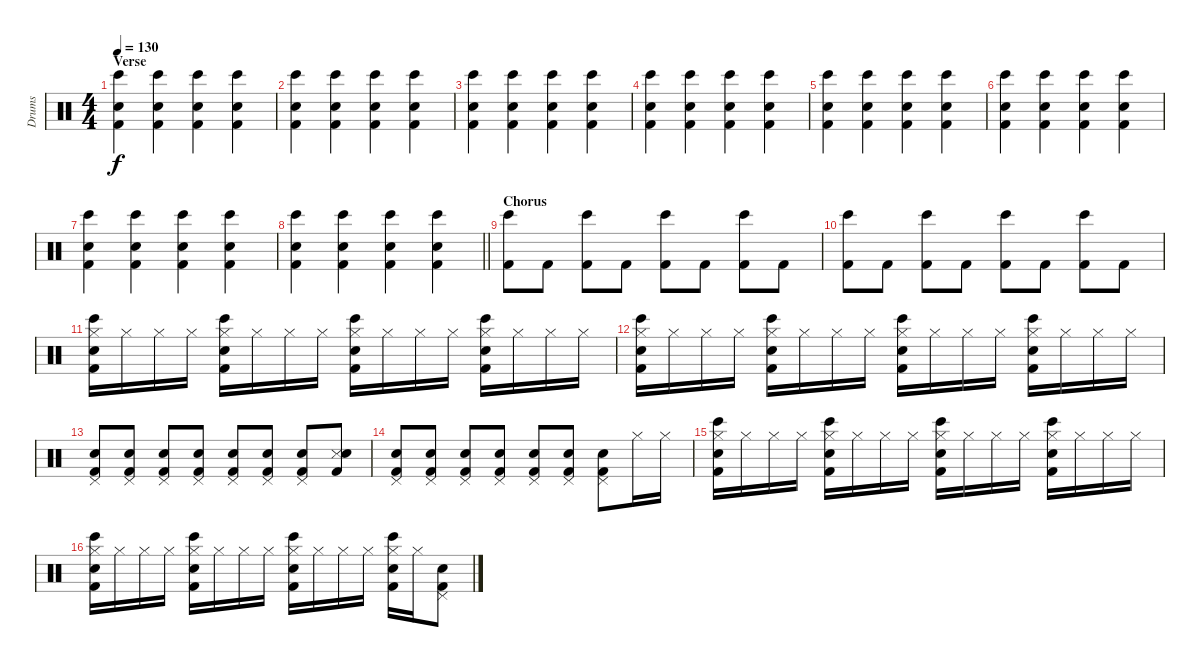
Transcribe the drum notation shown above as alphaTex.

\track ("Drums" "Drums") {instrument percussion}
\staff {score}
\articulation defaults
\ts (4 4)
\section ("" "Verse")
\tempo 130
\clef neutral
\ks c
("Electric Snare (hit)" "Kick (hit) 2" "Bongo High (hit)").4{dy f} ("Electric Snare (hit)" "Kick (hit) 2" "Bongo High (hit)").4 ("Electric Snare (hit)" "Kick (hit) 2" "Bongo High (hit)").4 ("Electric Snare (hit)" "Kick (hit) 2" "Bongo High (hit)").4 |
("Electric Snare (hit)" "Kick (hit) 2" "Bongo High (hit)").4 ("Electric Snare (hit)" "Kick (hit) 2" "Bongo High (hit)").4 ("Electric Snare (hit)" "Kick (hit) 2" "Bongo High (hit)").4 ("Electric Snare (hit)" "Kick (hit) 2" "Bongo High (hit)").4 |
("Electric Snare (hit)" "Kick (hit) 2" "Bongo High (hit)").4 ("Electric Snare (hit)" "Kick (hit) 2" "Bongo High (hit)").4 ("Electric Snare (hit)" "Kick (hit) 2" "Bongo High (hit)").4 ("Electric Snare (hit)" "Kick (hit) 2" "Bongo High (hit)").4 |
("Electric Snare (hit)" "Kick (hit) 2" "Bongo High (hit)").4 ("Electric Snare (hit)" "Kick (hit) 2" "Bongo High (hit)").4 ("Electric Snare (hit)" "Kick (hit) 2" "Bongo High (hit)").4 ("Electric Snare (hit)" "Kick (hit) 2" "Bongo High (hit)").4 |
("Electric Snare (hit)" "Kick (hit) 2" "Bongo High (hit)").4 ("Electric Snare (hit)" "Kick (hit) 2" "Bongo High (hit)").4 ("Electric Snare (hit)" "Kick (hit) 2" "Bongo High (hit)").4 ("Electric Snare (hit)" "Kick (hit) 2" "Bongo High (hit)").4 |
("Electric Snare (hit)" "Kick (hit) 2" "Bongo High (hit)").4 ("Electric Snare (hit)" "Kick (hit) 2" "Bongo High (hit)").4 ("Electric Snare (hit)" "Kick (hit) 2" "Bongo High (hit)").4 ("Electric Snare (hit)" "Kick (hit) 2" "Bongo High (hit)").4 |
("Electric Snare (hit)" "Kick (hit) 2" "Bongo High (hit)").4 ("Electric Snare (hit)" "Kick (hit) 2" "Bongo High (hit)").4 ("Electric Snare (hit)" "Kick (hit) 2" "Bongo High (hit)").4 ("Electric Snare (hit)" "Kick (hit) 2" "Bongo High (hit)").4 |
\barLineRight lightlight
("Electric Snare (hit)" "Kick (hit) 2" "Bongo High (hit)").4 ("Electric Snare (hit)" "Kick (hit) 2" "Bongo High (hit)").4 ("Electric Snare (hit)" "Kick (hit) 2" "Bongo High (hit)").4 ("Electric Snare (hit)" "Kick (hit) 2" "Bongo High (hit)").4 |
\section ("" "Chorus")
("Bongo High (hit)" "Kick (hit) 2").8{volume 16} "Kick (hit) 2".8 ("Bongo High (hit)" "Kick (hit) 2").8 "Kick (hit) 2".8 ("Bongo High (hit)" "Kick (hit) 2").8 "Kick (hit) 2".8 ("Bongo High (hit)" "Kick (hit) 2").8 "Kick (hit) 2".8 |
("Bongo High (hit)" "Kick (hit) 2").8 "Kick (hit) 2".8 ("Bongo High (hit)" "Kick (hit) 2").8 "Kick (hit) 2".8 ("Bongo High (hit)" "Kick (hit) 2").8 "Kick (hit) 2".8 ("Bongo High (hit)" "Kick (hit) 2").8 "Kick (hit) 2".8 |
("Hi-Hat (closed)" "Electric Snare (hit)" "Kick (hit) 2" "Bongo High (hit)").16{volume 10} "Hi-Hat (closed)".16 "Hi-Hat (closed)".16 "Hi-Hat (closed)".16 ("Hi-Hat (closed)" "Electric Snare (hit)" "Kick (hit) 2" "Bongo High (hit)").16 "Hi-Hat (closed)".16 "Hi-Hat (closed)".16 "Hi-Hat (closed)".16 ("Hi-Hat (closed)" "Electric Snare (hit)" "Kick (hit) 2" "Bongo High (hit)").16 "Hi-Hat (closed)".16 "Hi-Hat (closed)".16 "Hi-Hat (closed)".16 ("Hi-Hat (closed)" "Electric Snare (hit)" "Kick (hit) 2" "Bongo High (hit)").16 "Hi-Hat (closed)".16 "Hi-Hat (closed)".16 "Hi-Hat (closed)".16 |
("Hi-Hat (closed)" "Electric Snare (hit)" "Kick (hit) 2" "Bongo High (hit)").16 "Hi-Hat (closed)".16 "Hi-Hat (closed)".16 "Hi-Hat (closed)".16 ("Hi-Hat (closed)" "Electric Snare (hit)" "Kick (hit) 2" "Bongo High (hit)").16 "Hi-Hat (closed)".16 "Hi-Hat (closed)".16 "Hi-Hat (closed)".16 ("Hi-Hat (closed)" "Electric Snare (hit)" "Kick (hit) 2" "Bongo High (hit)").16 "Hi-Hat (closed)".16 "Hi-Hat (closed)".16 "Hi-Hat (closed)".16 ("Hi-Hat (closed)" "Electric Snare (hit)" "Kick (hit) 2" "Bongo High (hit)").16 "Hi-Hat (closed)".16 "Hi-Hat (closed)".16 "Hi-Hat (closed)".16 |
("Pedal Hi-Hat (hit)" "Kick (hit) 2" "Electric Snare (hit)").8 ("Pedal Hi-Hat (hit)" "Kick (hit) 2" "Electric Snare (hit)").8 ("Pedal Hi-Hat (hit)" "Kick (hit) 2" "Electric Snare (hit)").8 ("Pedal Hi-Hat (hit)" "Kick (hit) 2" "Electric Snare (hit)").8 ("Pedal Hi-Hat (hit)" "Kick (hit) 2" "Electric Snare (hit)").8 ("Pedal Hi-Hat (hit)" "Kick (hit) 2" "Electric Snare (hit)").8 ("Pedal Hi-Hat (hit)" "Kick (hit) 2" "Electric Snare (hit)").8 ("Snare (side stick) 3" "Kick (hit) 2" "Electric Snare (hit)").8 |
("Pedal Hi-Hat (hit)" "Kick (hit) 2" "Electric Snare (hit)").8 ("Pedal Hi-Hat (hit)" "Kick (hit) 2" "Electric Snare (hit)").8 ("Pedal Hi-Hat (hit)" "Kick (hit) 2" "Electric Snare (hit)").8 ("Pedal Hi-Hat (hit)" "Kick (hit) 2" "Electric Snare (hit)").8 ("Pedal Hi-Hat (hit)" "Kick (hit) 2" "Electric Snare (hit)").8 ("Pedal Hi-Hat (hit)" "Kick (hit) 2" "Electric Snare (hit)").8 ("Pedal Hi-Hat (hit)" "Kick (hit) 2" "Electric Snare (hit)").8 "Hi-Hat (closed)".16 "Hi-Hat (closed)".16 |
("Hi-Hat (closed)" "Electric Snare (hit)" "Kick (hit) 2" "Bongo High (hit)").16 "Hi-Hat (closed)".16 "Hi-Hat (closed)".16 "Hi-Hat (closed)".16 ("Hi-Hat (closed)" "Electric Snare (hit)" "Kick (hit) 2" "Bongo High (hit)").16 "Hi-Hat (closed)".16 "Hi-Hat (closed)".16 "Hi-Hat (closed)".16 ("Hi-Hat (closed)" "Electric Snare (hit)" "Kick (hit) 2" "Bongo High (hit)").16 "Hi-Hat (closed)".16 "Hi-Hat (closed)".16 "Hi-Hat (closed)".16 ("Hi-Hat (closed)" "Electric Snare (hit)" "Kick (hit) 2" "Bongo High (hit)").16 "Hi-Hat (closed)".16 "Hi-Hat (closed)".16 "Hi-Hat (closed)".16 |
("Hi-Hat (closed)" "Electric Snare (hit)" "Kick (hit) 2" "Bongo High (hit)").16 "Hi-Hat (closed)".16 "Hi-Hat (closed)".16 "Hi-Hat (closed)".16 ("Hi-Hat (closed)" "Electric Snare (hit)" "Kick (hit) 2" "Bongo High (hit)").16 "Hi-Hat (closed)".16 "Hi-Hat (closed)".16 "Hi-Hat (closed)".16 ("Hi-Hat (closed)" "Electric Snare (hit)" "Kick (hit) 2" "Bongo High (hit)").16 "Hi-Hat (closed)".16 "Hi-Hat (closed)".16 "Hi-Hat (closed)".16 ("Hi-Hat (closed)" "Electric Snare (hit)" "Kick (hit) 2" "Bongo High (hit)").16 "Hi-Hat (closed)".16 ("Pedal Hi-Hat (hit)" "Kick (hit) 2" "Electric Snare (hit)").8
